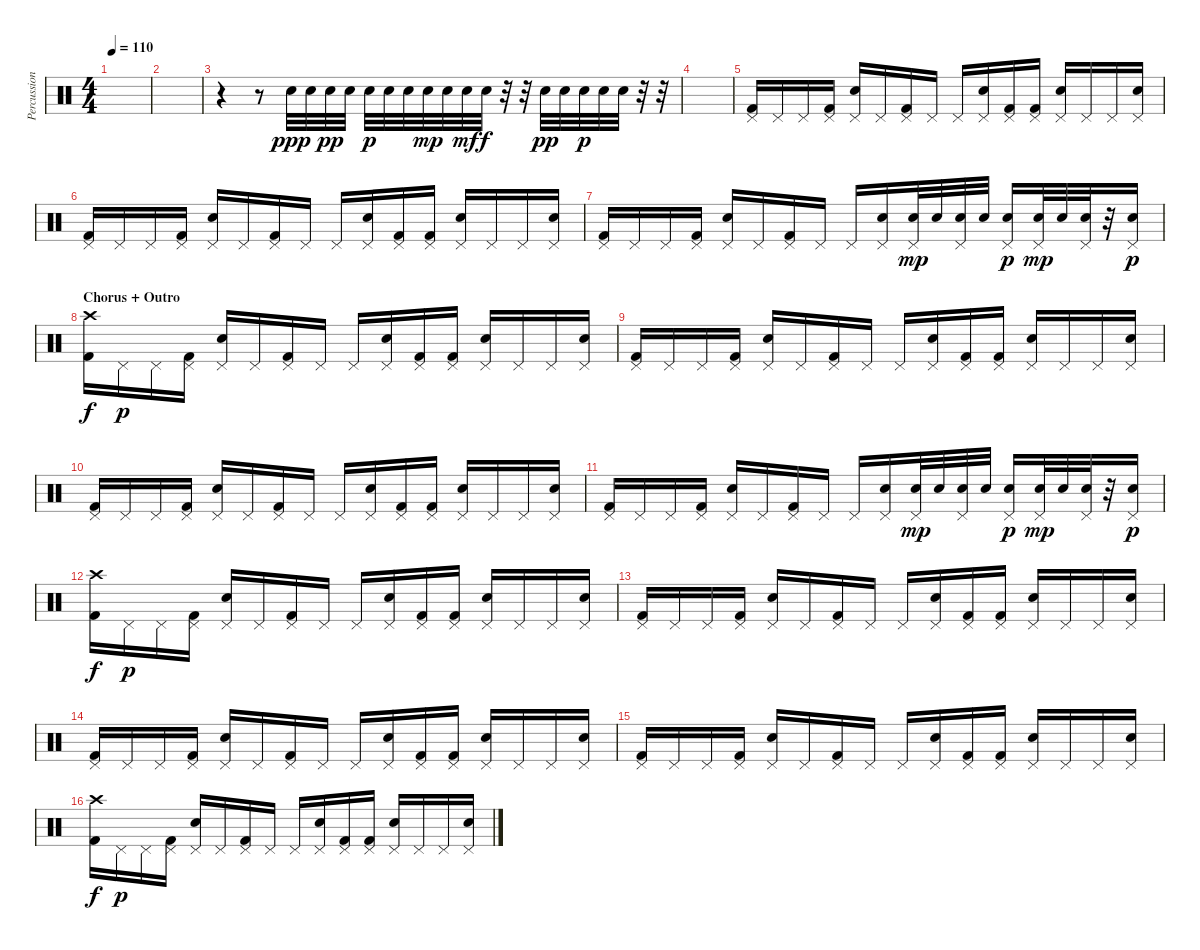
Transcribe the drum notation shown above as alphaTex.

\track ("Percussion" "Percussion") {instrument percussion}
\staff {score}
\articulation defaults
\ts (4 4)
\tempo 110
\clef neutral
\ks c
|
|
r.4 r.8 "Electric Snare (hit)".32{dy ppp} "Electric Snare (hit)".32 "Electric Snare (hit)".32{dy pp} "Electric Snare (hit)".32 "Electric Snare (hit)".32{dy p} "Electric Snare (hit)".32 "Electric Snare (hit)".32 "Electric Snare (hit)".32{dy mp} "Electric Snare (hit)".32 "Electric Snare (hit)".32{dy mf} "Electric Snare (hit)".32{dy f} r.32 r.32 "Electric Snare (hit)".32{dy pp} "Electric Snare (hit)".32 "Electric Snare (hit)".32{dy p} "Electric Snare (hit)".32 "Electric Snare (hit)".32 r.32 r.32 |
|
("Pedal Hi-Hat (hit)" "Kick (hit) 2").16{volume 10} "Pedal Hi-Hat (hit)".16 "Pedal Hi-Hat (hit)".16 ("Pedal Hi-Hat (hit)" "Kick (hit) 2").16 ("Pedal Hi-Hat (hit)" "Electric Snare (hit)").16 "Pedal Hi-Hat (hit)".16 ("Pedal Hi-Hat (hit)" "Kick (hit) 2").16 "Pedal Hi-Hat (hit)".16 "Pedal Hi-Hat (hit)".16 ("Pedal Hi-Hat (hit)" "Electric Snare (hit)").16 ("Pedal Hi-Hat (hit)" "Kick (hit) 2").16 ("Pedal Hi-Hat (hit)" "Kick (hit) 2").16 ("Pedal Hi-Hat (hit)" "Electric Snare (hit)").16 "Pedal Hi-Hat (hit)".16 "Pedal Hi-Hat (hit)".16 ("Pedal Hi-Hat (hit)" "Electric Snare (hit)").16 |
("Pedal Hi-Hat (hit)" "Kick (hit) 2").16 "Pedal Hi-Hat (hit)".16 "Pedal Hi-Hat (hit)".16 ("Pedal Hi-Hat (hit)" "Kick (hit) 2").16 ("Pedal Hi-Hat (hit)" "Electric Snare (hit)").16 "Pedal Hi-Hat (hit)".16 ("Pedal Hi-Hat (hit)" "Kick (hit) 2").16 "Pedal Hi-Hat (hit)".16 "Pedal Hi-Hat (hit)".16 ("Pedal Hi-Hat (hit)" "Electric Snare (hit)").16 ("Pedal Hi-Hat (hit)" "Kick (hit) 2").16 ("Pedal Hi-Hat (hit)" "Kick (hit) 2").16 ("Pedal Hi-Hat (hit)" "Electric Snare (hit)").16 "Pedal Hi-Hat (hit)".16 "Pedal Hi-Hat (hit)".16 ("Pedal Hi-Hat (hit)" "Electric Snare (hit)").16 |
("Pedal Hi-Hat (hit)" "Kick (hit) 2").16 "Pedal Hi-Hat (hit)".16 "Pedal Hi-Hat (hit)".16 ("Pedal Hi-Hat (hit)" "Kick (hit) 2").16 ("Pedal Hi-Hat (hit)" "Electric Snare (hit)").16 "Pedal Hi-Hat (hit)".16 ("Pedal Hi-Hat (hit)" "Kick (hit) 2").16 "Pedal Hi-Hat (hit)".16 "Pedal Hi-Hat (hit)".16{volume 16} ("Pedal Hi-Hat (hit)" "Electric Snare (hit)").16 ("Pedal Hi-Hat (hit)" "Snare (hit)").32{dy mp} "Snare (hit)".32 ("Pedal Hi-Hat (hit)" "Snare (hit)").32 "Snare (hit)".32 ("Pedal Hi-Hat (hit)" "Electric Snare (hit)").16{dy p} ("Pedal Hi-Hat (hit)" "Snare (hit)").32{dy mp} "Snare (hit)".32 ("Pedal Hi-Hat (hit)" "Snare (hit)").32 r.32 ("Pedal Hi-Hat (hit)" "Electric Snare (hit)").16{dy p} |
\section ("" "Chorus + Outro")
("Crash high (hit)" "Kick (hit) 2").16{dy f volume 16} "Pedal Hi-Hat (hit)".16{dy p} "Pedal Hi-Hat (hit)".16 ("Pedal Hi-Hat (hit)" "Kick (hit) 2").16 ("Pedal Hi-Hat (hit)" "Electric Snare (hit)").16 "Pedal Hi-Hat (hit)".16 ("Pedal Hi-Hat (hit)" "Kick (hit) 2").16 "Pedal Hi-Hat (hit)".16 "Pedal Hi-Hat (hit)".16 ("Pedal Hi-Hat (hit)" "Electric Snare (hit)").16 ("Pedal Hi-Hat (hit)" "Kick (hit) 2").16 ("Pedal Hi-Hat (hit)" "Kick (hit) 2").16 ("Pedal Hi-Hat (hit)" "Electric Snare (hit)").16 "Pedal Hi-Hat (hit)".16 "Pedal Hi-Hat (hit)".16 ("Pedal Hi-Hat (hit)" "Electric Snare (hit)").16 |
("Pedal Hi-Hat (hit)" "Kick (hit) 2").16 "Pedal Hi-Hat (hit)".16 "Pedal Hi-Hat (hit)".16 ("Pedal Hi-Hat (hit)" "Kick (hit) 2").16 ("Pedal Hi-Hat (hit)" "Electric Snare (hit)").16 "Pedal Hi-Hat (hit)".16 ("Pedal Hi-Hat (hit)" "Kick (hit) 2").16 "Pedal Hi-Hat (hit)".16 "Pedal Hi-Hat (hit)".16 ("Pedal Hi-Hat (hit)" "Electric Snare (hit)").16 ("Pedal Hi-Hat (hit)" "Kick (hit) 2").16 ("Pedal Hi-Hat (hit)" "Kick (hit) 2").16 ("Pedal Hi-Hat (hit)" "Electric Snare (hit)").16 "Pedal Hi-Hat (hit)".16 "Pedal Hi-Hat (hit)".16 ("Pedal Hi-Hat (hit)" "Electric Snare (hit)").16 |
("Pedal Hi-Hat (hit)" "Kick (hit) 2").16 "Pedal Hi-Hat (hit)".16 "Pedal Hi-Hat (hit)".16 ("Pedal Hi-Hat (hit)" "Kick (hit) 2").16 ("Pedal Hi-Hat (hit)" "Electric Snare (hit)").16 "Pedal Hi-Hat (hit)".16 ("Pedal Hi-Hat (hit)" "Kick (hit) 2").16 "Pedal Hi-Hat (hit)".16 "Pedal Hi-Hat (hit)".16 ("Pedal Hi-Hat (hit)" "Electric Snare (hit)").16 ("Pedal Hi-Hat (hit)" "Kick (hit) 2").16 ("Pedal Hi-Hat (hit)" "Kick (hit) 2").16 ("Pedal Hi-Hat (hit)" "Electric Snare (hit)").16 "Pedal Hi-Hat (hit)".16 "Pedal Hi-Hat (hit)".16 ("Pedal Hi-Hat (hit)" "Electric Snare (hit)").16 |
("Pedal Hi-Hat (hit)" "Kick (hit) 2").16 "Pedal Hi-Hat (hit)".16 "Pedal Hi-Hat (hit)".16 ("Pedal Hi-Hat (hit)" "Kick (hit) 2").16 ("Pedal Hi-Hat (hit)" "Electric Snare (hit)").16 "Pedal Hi-Hat (hit)".16 ("Pedal Hi-Hat (hit)" "Kick (hit) 2").16 "Pedal Hi-Hat (hit)".16 "Pedal Hi-Hat (hit)".16 ("Pedal Hi-Hat (hit)" "Electric Snare (hit)").16 ("Pedal Hi-Hat (hit)" "Snare (hit)").32{dy mp} "Snare (hit)".32 ("Pedal Hi-Hat (hit)" "Snare (hit)").32 "Snare (hit)".32 ("Pedal Hi-Hat (hit)" "Electric Snare (hit)").16{dy p} ("Pedal Hi-Hat (hit)" "Snare (hit)").32{dy mp} "Snare (hit)".32 ("Pedal Hi-Hat (hit)" "Snare (hit)").32 r.32 ("Pedal Hi-Hat (hit)" "Electric Snare (hit)").16{dy p} |
("Crash high (hit)" "Kick (hit) 2").16{dy f volume 16} "Pedal Hi-Hat (hit)".16{dy p} "Pedal Hi-Hat (hit)".16 ("Pedal Hi-Hat (hit)" "Kick (hit) 2").16 ("Pedal Hi-Hat (hit)" "Electric Snare (hit)").16 "Pedal Hi-Hat (hit)".16 ("Pedal Hi-Hat (hit)" "Kick (hit) 2").16 "Pedal Hi-Hat (hit)".16 "Pedal Hi-Hat (hit)".16 ("Pedal Hi-Hat (hit)" "Electric Snare (hit)").16 ("Pedal Hi-Hat (hit)" "Kick (hit) 2").16 ("Pedal Hi-Hat (hit)" "Kick (hit) 2").16 ("Pedal Hi-Hat (hit)" "Electric Snare (hit)").16 "Pedal Hi-Hat (hit)".16 "Pedal Hi-Hat (hit)".16 ("Pedal Hi-Hat (hit)" "Electric Snare (hit)").16 |
("Pedal Hi-Hat (hit)" "Kick (hit) 2").16 "Pedal Hi-Hat (hit)".16 "Pedal Hi-Hat (hit)".16 ("Pedal Hi-Hat (hit)" "Kick (hit) 2").16 ("Pedal Hi-Hat (hit)" "Electric Snare (hit)").16 "Pedal Hi-Hat (hit)".16 ("Pedal Hi-Hat (hit)" "Kick (hit) 2").16 "Pedal Hi-Hat (hit)".16 "Pedal Hi-Hat (hit)".16 ("Pedal Hi-Hat (hit)" "Electric Snare (hit)").16 ("Pedal Hi-Hat (hit)" "Kick (hit) 2").16 ("Pedal Hi-Hat (hit)" "Kick (hit) 2").16 ("Pedal Hi-Hat (hit)" "Electric Snare (hit)").16 "Pedal Hi-Hat (hit)".16 "Pedal Hi-Hat (hit)".16 ("Pedal Hi-Hat (hit)" "Electric Snare (hit)").16 |
("Pedal Hi-Hat (hit)" "Kick (hit) 2").16 "Pedal Hi-Hat (hit)".16 "Pedal Hi-Hat (hit)".16 ("Pedal Hi-Hat (hit)" "Kick (hit) 2").16 ("Pedal Hi-Hat (hit)" "Electric Snare (hit)").16 "Pedal Hi-Hat (hit)".16 ("Pedal Hi-Hat (hit)" "Kick (hit) 2").16 "Pedal Hi-Hat (hit)".16 "Pedal Hi-Hat (hit)".16 ("Pedal Hi-Hat (hit)" "Electric Snare (hit)").16 ("Pedal Hi-Hat (hit)" "Kick (hit) 2").16 ("Pedal Hi-Hat (hit)" "Kick (hit) 2").16 ("Pedal Hi-Hat (hit)" "Electric Snare (hit)").16 "Pedal Hi-Hat (hit)".16 "Pedal Hi-Hat (hit)".16 ("Pedal Hi-Hat (hit)" "Electric Snare (hit)").16 |
("Pedal Hi-Hat (hit)" "Kick (hit) 2").16 "Pedal Hi-Hat (hit)".16 "Pedal Hi-Hat (hit)".16 ("Pedal Hi-Hat (hit)" "Kick (hit) 2").16 ("Pedal Hi-Hat (hit)" "Electric Snare (hit)").16 "Pedal Hi-Hat (hit)".16 ("Pedal Hi-Hat (hit)" "Kick (hit) 2").16 "Pedal Hi-Hat (hit)".16 "Pedal Hi-Hat (hit)".16 ("Pedal Hi-Hat (hit)" "Electric Snare (hit)").16 ("Pedal Hi-Hat (hit)" "Kick (hit) 2").16 ("Pedal Hi-Hat (hit)" "Kick (hit) 2").16 ("Pedal Hi-Hat (hit)" "Electric Snare (hit)").16 "Pedal Hi-Hat (hit)".16 "Pedal Hi-Hat (hit)".16 ("Pedal Hi-Hat (hit)" "Electric Snare (hit)").16 |
("Crash high (hit)" "Kick (hit) 2").16{dy f volume 16} "Pedal Hi-Hat (hit)".16{dy p} "Pedal Hi-Hat (hit)".16 ("Pedal Hi-Hat (hit)" "Kick (hit) 2").16 ("Pedal Hi-Hat (hit)" "Electric Snare (hit)").16 "Pedal Hi-Hat (hit)".16 ("Pedal Hi-Hat (hit)" "Kick (hit) 2").16 "Pedal Hi-Hat (hit)".16 "Pedal Hi-Hat (hit)".16 ("Pedal Hi-Hat (hit)" "Electric Snare (hit)").16 ("Pedal Hi-Hat (hit)" "Kick (hit) 2").16 ("Pedal Hi-Hat (hit)" "Kick (hit) 2").16 ("Pedal Hi-Hat (hit)" "Electric Snare (hit)").16 "Pedal Hi-Hat (hit)".16 "Pedal Hi-Hat (hit)".16 ("Pedal Hi-Hat (hit)" "Electric Snare (hit)").16
